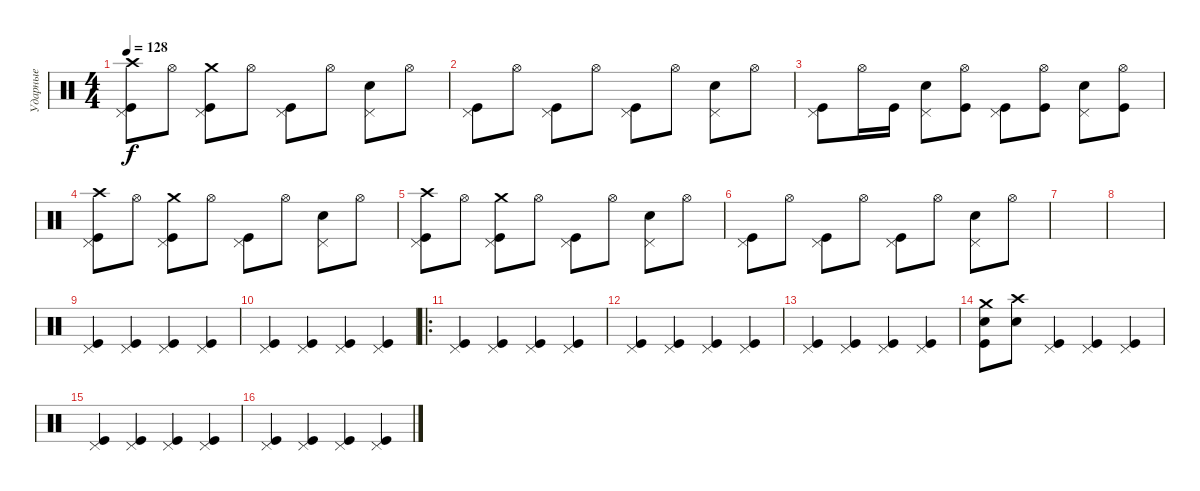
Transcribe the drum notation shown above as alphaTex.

\track ("Ударные" "Ударные") {instrument percussion}
\staff {score}
\articulation defaults
\ts (4 4)
\tempo 128
\clef neutral
\ks c
("Kick (hit)" "Pedal Hi-Hat (hit)" "Crash high (hit)").8{dy f} "Hi-Hat (open)".8 ("Kick (hit)" "Pedal Hi-Hat (hit)" "Crash medium (hit)").8 "Hi-Hat (open)".8 ("Kick (hit)" "Pedal Hi-Hat (hit)").8 "Hi-Hat (open)".8 ("Snare (hit) 2" "Pedal Hi-Hat (hit)").8 "Hi-Hat (open)".8 |
("Kick (hit)" "Pedal Hi-Hat (hit)").8 "Hi-Hat (open)".8 ("Kick (hit)" "Pedal Hi-Hat (hit)").8 "Hi-Hat (open)".8 ("Kick (hit)" "Pedal Hi-Hat (hit)").8 "Hi-Hat (open)".8 ("Snare (hit) 2" "Pedal Hi-Hat (hit)").8 "Hi-Hat (open)".8 |
("Kick (hit)" "Pedal Hi-Hat (hit)").8 "Hi-Hat (open)".16 "Kick (hit)".16 ("Pedal Hi-Hat (hit)" "Snare (hit) 2").8 ("Kick (hit)" "Hi-Hat (open)").8 ("Kick (hit)" "Pedal Hi-Hat (hit)").8 ("Kick (hit)" "Hi-Hat (open)").8 ("Snare (hit) 2" "Pedal Hi-Hat (hit)").8 ("Kick (hit)" "Hi-Hat (open)").8 |
("Kick (hit)" "Pedal Hi-Hat (hit)" "Crash high (hit)").8 "Hi-Hat (open)".8 ("Kick (hit)" "Pedal Hi-Hat (hit)" "Crash medium (hit)").8 "Hi-Hat (open)".8 ("Kick (hit)" "Pedal Hi-Hat (hit)").8 "Hi-Hat (open)".8 ("Snare (hit) 2" "Pedal Hi-Hat (hit)").8 "Hi-Hat (open)".8 |
("Kick (hit)" "Pedal Hi-Hat (hit)" "Crash high (hit)").8 "Hi-Hat (open)".8 ("Kick (hit)" "Pedal Hi-Hat (hit)" "Crash medium (hit)").8 "Hi-Hat (open)".8 ("Kick (hit)" "Pedal Hi-Hat (hit)").8 "Hi-Hat (open)".8 ("Snare (hit) 2" "Pedal Hi-Hat (hit)").8 "Hi-Hat (open)".8 |
("Kick (hit)" "Pedal Hi-Hat (hit)").8 "Hi-Hat (open)".8 ("Kick (hit)" "Pedal Hi-Hat (hit)").8 "Hi-Hat (open)".8 ("Kick (hit)" "Pedal Hi-Hat (hit)").8 "Hi-Hat (open)".8 ("Snare (hit) 2" "Pedal Hi-Hat (hit)").8 "Hi-Hat (open)".8 |
|
|
("Kick (hit)" "Pedal Hi-Hat (hit)").4 ("Kick (hit)" "Pedal Hi-Hat (hit)").4 ("Kick (hit)" "Pedal Hi-Hat (hit)").4 ("Kick (hit)" "Pedal Hi-Hat (hit)").4 |
("Kick (hit)" "Pedal Hi-Hat (hit)").4 ("Kick (hit)" "Pedal Hi-Hat (hit)").4 ("Kick (hit)" "Pedal Hi-Hat (hit)").4 ("Kick (hit)" "Pedal Hi-Hat (hit)").4 |
\ro
("Kick (hit)" "Pedal Hi-Hat (hit)").4 ("Kick (hit)" "Pedal Hi-Hat (hit)").4 ("Kick (hit)" "Pedal Hi-Hat (hit)").4 ("Kick (hit)" "Pedal Hi-Hat (hit)").4 |
("Kick (hit)" "Pedal Hi-Hat (hit)").4 ("Kick (hit)" "Pedal Hi-Hat (hit)").4 ("Kick (hit)" "Pedal Hi-Hat (hit)").4 ("Kick (hit)" "Pedal Hi-Hat (hit)").4 |
("Kick (hit)" "Pedal Hi-Hat (hit)").4 ("Kick (hit)" "Pedal Hi-Hat (hit)").4 ("Kick (hit)" "Pedal Hi-Hat (hit)").4 ("Kick (hit)" "Pedal Hi-Hat (hit)").4 |
("Kick (hit)" "Snare (hit) 2" "Crash medium (hit)").8 ("Snare (hit) 2" "Crash high (hit)").8 ("Kick (hit)" "Pedal Hi-Hat (hit)").4 ("Kick (hit)" "Pedal Hi-Hat (hit)").4 ("Kick (hit)" "Pedal Hi-Hat (hit)").4 |
("Kick (hit)" "Pedal Hi-Hat (hit)").4 ("Kick (hit)" "Pedal Hi-Hat (hit)").4 ("Kick (hit)" "Pedal Hi-Hat (hit)").4 ("Kick (hit)" "Pedal Hi-Hat (hit)").4 |
("Kick (hit)" "Pedal Hi-Hat (hit)").4 ("Kick (hit)" "Pedal Hi-Hat (hit)").4 ("Kick (hit)" "Pedal Hi-Hat (hit)").4 ("Kick (hit)" "Pedal Hi-Hat (hit)").4
